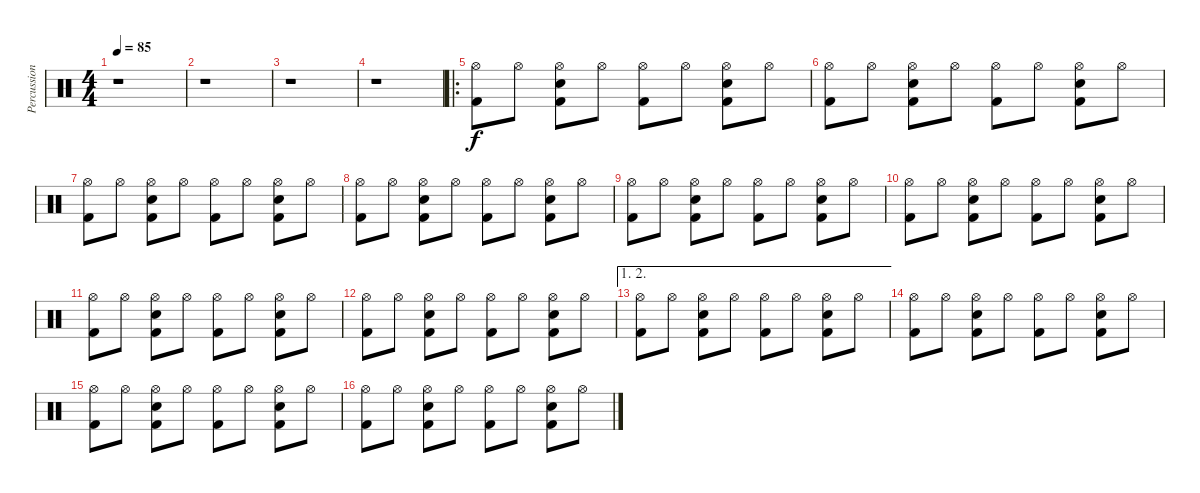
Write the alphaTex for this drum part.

\track ("Percussion" "Percussion") {instrument percussion}
\staff {score}
\articulation defaults
\ts (4 4)
\tempo 85
\clef neutral
\ks c
r.1{dy f} |
r.1 |
r.1 |
r.1 |
\ro
("Hi-Hat (open)" "Kick (hit) 2").8 "Hi-Hat (open)".8 ("Hi-Hat (open)" "Electric Snare (hit)" "Kick (hit) 2").8 "Hi-Hat (open)".8 ("Hi-Hat (open)" "Kick (hit) 2").8 "Hi-Hat (open)".8 ("Hi-Hat (open)" "Electric Snare (hit)" "Kick (hit) 2").8 "Hi-Hat (open)".8 |
("Hi-Hat (open)" "Kick (hit) 2").8 "Hi-Hat (open)".8 ("Hi-Hat (open)" "Electric Snare (hit)" "Kick (hit) 2").8 "Hi-Hat (open)".8 ("Hi-Hat (open)" "Kick (hit) 2").8 "Hi-Hat (open)".8 ("Hi-Hat (open)" "Electric Snare (hit)" "Kick (hit) 2").8 "Hi-Hat (open)".8 |
("Hi-Hat (open)" "Kick (hit) 2").8 "Hi-Hat (open)".8 ("Hi-Hat (open)" "Electric Snare (hit)" "Kick (hit) 2").8 "Hi-Hat (open)".8 ("Hi-Hat (open)" "Kick (hit) 2").8 "Hi-Hat (open)".8 ("Hi-Hat (open)" "Electric Snare (hit)" "Kick (hit) 2").8 "Hi-Hat (open)".8 |
("Hi-Hat (open)" "Kick (hit) 2").8 "Hi-Hat (open)".8 ("Hi-Hat (open)" "Electric Snare (hit)" "Kick (hit) 2").8 "Hi-Hat (open)".8 ("Hi-Hat (open)" "Kick (hit) 2").8 "Hi-Hat (open)".8 ("Hi-Hat (open)" "Electric Snare (hit)" "Kick (hit) 2").8 "Hi-Hat (open)".8 |
("Hi-Hat (open)" "Kick (hit) 2").8 "Hi-Hat (open)".8 ("Hi-Hat (open)" "Electric Snare (hit)" "Kick (hit) 2").8 "Hi-Hat (open)".8 ("Hi-Hat (open)" "Kick (hit) 2").8 "Hi-Hat (open)".8 ("Hi-Hat (open)" "Electric Snare (hit)" "Kick (hit) 2").8 "Hi-Hat (open)".8 |
("Hi-Hat (open)" "Kick (hit) 2").8 "Hi-Hat (open)".8 ("Hi-Hat (open)" "Electric Snare (hit)" "Kick (hit) 2").8 "Hi-Hat (open)".8 ("Hi-Hat (open)" "Kick (hit) 2").8 "Hi-Hat (open)".8 ("Hi-Hat (open)" "Electric Snare (hit)" "Kick (hit) 2").8 "Hi-Hat (open)".8 |
("Hi-Hat (open)" "Kick (hit) 2").8 "Hi-Hat (open)".8 ("Hi-Hat (open)" "Electric Snare (hit)" "Kick (hit) 2").8 "Hi-Hat (open)".8 ("Hi-Hat (open)" "Kick (hit) 2").8 "Hi-Hat (open)".8 ("Hi-Hat (open)" "Electric Snare (hit)" "Kick (hit) 2").8 "Hi-Hat (open)".8 |
("Hi-Hat (open)" "Kick (hit) 2").8 "Hi-Hat (open)".8 ("Hi-Hat (open)" "Electric Snare (hit)" "Kick (hit) 2").8 "Hi-Hat (open)".8 ("Hi-Hat (open)" "Kick (hit) 2").8 "Hi-Hat (open)".8 ("Hi-Hat (open)" "Electric Snare (hit)" "Kick (hit) 2").8 "Hi-Hat (open)".8 |
\ae (1 2)
("Hi-Hat (open)" "Kick (hit) 2").8 "Hi-Hat (open)".8 ("Hi-Hat (open)" "Electric Snare (hit)" "Kick (hit) 2").8 "Hi-Hat (open)".8 ("Hi-Hat (open)" "Kick (hit) 2").8 "Hi-Hat (open)".8 ("Hi-Hat (open)" "Electric Snare (hit)" "Kick (hit) 2").8 "Hi-Hat (open)".8 |
("Hi-Hat (open)" "Kick (hit) 2").8 "Hi-Hat (open)".8 ("Hi-Hat (open)" "Electric Snare (hit)" "Kick (hit) 2").8 "Hi-Hat (open)".8 ("Hi-Hat (open)" "Kick (hit) 2").8 "Hi-Hat (open)".8 ("Hi-Hat (open)" "Electric Snare (hit)" "Kick (hit) 2").8 "Hi-Hat (open)".8 |
("Hi-Hat (open)" "Kick (hit) 2").8 "Hi-Hat (open)".8 ("Hi-Hat (open)" "Electric Snare (hit)" "Kick (hit) 2").8 "Hi-Hat (open)".8 ("Hi-Hat (open)" "Kick (hit) 2").8 "Hi-Hat (open)".8 ("Hi-Hat (open)" "Electric Snare (hit)" "Kick (hit) 2").8 "Hi-Hat (open)".8 |
("Hi-Hat (open)" "Kick (hit) 2").8 "Hi-Hat (open)".8 ("Hi-Hat (open)" "Electric Snare (hit)" "Kick (hit) 2").8 "Hi-Hat (open)".8 ("Hi-Hat (open)" "Kick (hit) 2").8 "Hi-Hat (open)".8 ("Hi-Hat (open)" "Electric Snare (hit)" "Kick (hit) 2").8 "Hi-Hat (open)".8
